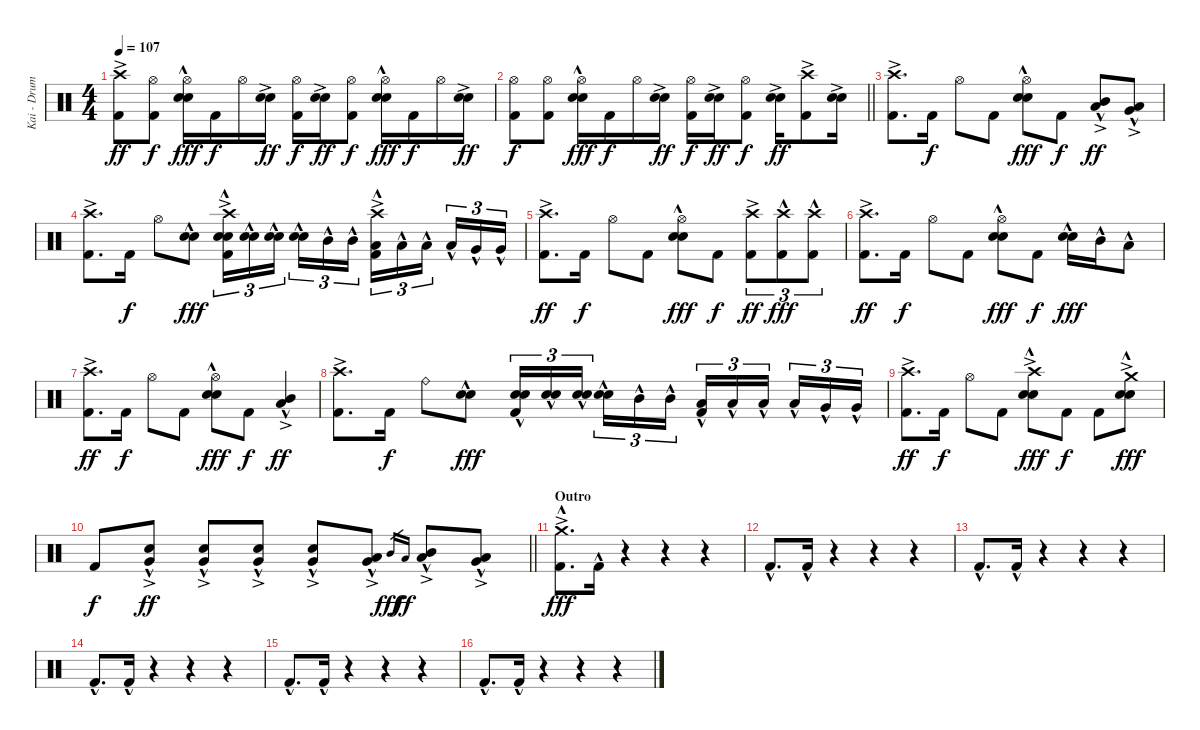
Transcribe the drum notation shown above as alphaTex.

\track ("Kai - Drums" "Kai - Drum") {instrument percussion}
\staff {score}
\articulation defaults
\ts (4 4)
\tempo 107
\clef neutral
\ks c
("Crash high (hit)"{ac} "Kick (hit) 2").8{dy ff} ("Hi-Hat (open)" "Kick (hit) 2").8{dy f} ("Hi-Hat (open)" "Electric Snare (hit)"{hac} "Snare (hit) 2"{hac}).16{dy fff} "Kick (hit) 2".16{dy f} "Hi-Hat (open)".16 ("Electric Snare (hit)"{ac} "Snare (hit) 2"{ac}).16{dy ff} ("Hi-Hat (open)" "Kick (hit) 2").16{dy f} ("Electric Snare (hit)"{ac} "Snare (hit) 2"{ac}).16{dy ff} ("Hi-Hat (open)" "Kick (hit) 2").8{dy f} ("Hi-Hat (open)" "Electric Snare (hit)"{hac} "Snare (hit) 2"{hac}).16{dy fff} "Kick (hit) 2".16{dy f} "Hi-Hat (open)".16 ("Electric Snare (hit)"{ac} "Snare (hit) 2"{ac}).16{dy ff} |
\barLineRight lightlight
("Hi-Hat (open)" "Kick (hit) 2").8{dy f} ("Hi-Hat (open)" "Kick (hit) 2").8 ("Hi-Hat (open)" "Electric Snare (hit)"{hac} "Snare (hit) 2"{hac}).16{dy fff} "Kick (hit) 2".16{dy f} "Hi-Hat (open)".16 ("Electric Snare (hit)"{ac} "Snare (hit) 2"{ac}).16{dy ff} ("Hi-Hat (open)" "Kick (hit) 2").16{dy f} ("Electric Snare (hit)"{ac} "Snare (hit) 2"{ac}).16{dy ff} ("Hi-Hat (open)" "Kick (hit) 2").8{dy f} ("Electric Snare (hit)"{ac} "Snare (hit) 2"{ac}).16{dy ff} ("Crash high (hit)"{ac} "Kick (hit) 2").8 ("Electric Snare (hit)"{ac} "Snare (hit) 2"{ac}).16 |
\section ("" "")
("Crash high (hit)"{ac} "Kick (hit) 2").8{d} "Kick (hit) 2".16{dy f} "Hi-Hat (open)".8 "Kick (hit) 2".8 ("Hi-Hat (open)" "Electric Snare (hit)"{hac} "Snare (hit) 2"{hac}).8{dy fff} "Kick (hit) 2".8{dy f} ("Mid Tom (hit)"{hac} "Low Tom (hit)"{ac}).8{dy ff} ("Low Tom (hit)"{hac} "Very Low Tom (hit)"{ac}).8 |
("Crash high (hit)"{ac} "Kick (hit) 2").8{d} "Kick (hit) 2".16{dy f} "Hi-Hat (open)".8 ("Electric Snare (hit)"{hac} "Snare (hit) 2"{hac}).8{dy fff} ("Crash high (hit)"{ac} "Electric Snare (hit)"{hac} "Snare (hit) 2"{hac} "Kick (hit) 2").16{tu (3 2)} ("Electric Snare (hit)"{hac} "Snare (hit) 2"{hac}).16{tu (3 2)} ("Electric Snare (hit)"{hac} "Snare (hit) 2"{hac}).16{tu (3 2) beam splitsecondary} ("Electric Snare (hit)"{hac} "Snare (hit) 2"{hac}).16{tu (3 2)} "Mid Tom (hit)"{hac}.16{tu (3 2)} "Mid Tom (hit)"{hac}.16{tu (3 2)} ("Crash high (hit)"{ac} "Low Tom (hit)"{hac} "Kick (hit) 2").16{tu (3 2)} "Low Tom (hit)"{hac}.16{tu (3 2)} "Low Tom (hit)"{hac}.16{tu (3 2) beam splitsecondary} "Low Tom (hit)"{hac}.16{tu (3 2)} "Very Low Tom (hit)"{hac}.16{tu (3 2)} "Very Low Tom (hit)"{hac}.16{tu (3 2)} |
("Crash high (hit)"{ac} "Kick (hit) 2").8{d dy ff} "Kick (hit) 2".16{dy f} "Hi-Hat (open)".8 "Kick (hit) 2".8 ("Hi-Hat (open)" "Electric Snare (hit)"{hac} "Snare (hit) 2"{hac}).8{dy fff} "Kick (hit) 2".8{dy f} ("Crash high (hit)"{ac} "Kick (hit) 2").8{tu (3 2) dy ff} ("Crash high (hit)"{hac} "Kick (hit) 2").8{tu (3 2) dy fff} ("Crash high (hit)"{hac} "Kick (hit) 2").8{tu (3 2)} |
("Crash high (hit)"{ac} "Kick (hit) 2").8{d dy ff} "Kick (hit) 2".16{dy f} "Hi-Hat (open)".8 "Kick (hit) 2".8 ("Hi-Hat (open)" "Electric Snare (hit)"{hac} "Snare (hit) 2"{hac}).8{dy fff} "Kick (hit) 2".8{dy f} ("Electric Snare (hit)"{hac} "Snare (hit) 2"{hac}).16{dy fff} "Mid Tom (hit)"{hac}.16 "Low Tom (hit)"{hac}.8 |
("Crash high (hit)"{ac} "Kick (hit) 2").8{d dy ff} "Kick (hit) 2".16{dy f} "Hi-Hat (open)".8 "Kick (hit) 2".8 ("Hi-Hat (open)" "Electric Snare (hit)"{hac} "Snare (hit) 2"{hac}).8{dy fff} "Kick (hit) 2".8{dy f} ("Mid Tom (hit)"{hac} "Low Tom (hit)"{ac}).4{dy ff} |
("Crash high (hit)"{ac} "Kick (hit) 2").8{d} "Kick (hit) 2".16{dy f} "Ride (bell)".8 ("Electric Snare (hit)"{hac} "Snare (hit) 2"{hac}).8{dy fff} ("Electric Snare (hit)"{hac} "Snare (hit) 2"{hac} "Kick (hit) 2").16{tu (3 2)} ("Electric Snare (hit)"{hac} "Snare (hit) 2"{hac}).16{tu (3 2)} ("Electric Snare (hit)"{hac} "Snare (hit) 2"{hac}).16{tu (3 2) beam splitsecondary} ("Electric Snare (hit)"{hac} "Snare (hit) 2"{hac}).16{tu (3 2)} "Mid Tom (hit)"{hac}.16{tu (3 2)} "Mid Tom (hit)"{hac}.16{tu (3 2)} ("Low Tom (hit)"{hac} "Kick (hit) 2").16{tu (3 2)} "Low Tom (hit)"{hac}.16{tu (3 2)} "Low Tom (hit)"{hac}.16{tu (3 2) beam splitsecondary} "Low Tom (hit)"{hac}.16{tu (3 2)} "Very Low Tom (hit)"{hac}.16{tu (3 2)} "Very Low Tom (hit)"{hac}.16{tu (3 2)} |
("Crash high (hit)"{ac} "Kick (hit) 2").8{d dy ff} "Kick (hit) 2".16{dy f} "Hi-Hat (open)".8 "Kick (hit) 2".8 ("Crash high (hit)"{ac} "Electric Snare (hit)"{hac} "Snare (hit) 2"{hac}).8{dy fff} "Kick (hit) 2".8{dy f} "Kick (hit) 2".8 ("Crash medium (hit)"{ac} "Electric Snare (hit)"{hac} "Snare (hit) 2"{hac}).8{dy fff} |
\barLineRight lightlight "Kick (hit) 2".8{dy f}
("Electric Snare (hit)"{hac} "Very Low Tom (hit)"{ac}).8{dy ff} ("Electric Snare (hit)"{hac} "Very Low Tom (hit)"{ac}).8 ("Electric Snare (hit)"{hac} "Very Low Tom (hit)"{ac}).8 ("Electric Snare (hit)"{hac} "Very Low Tom (hit)"{ac}).8 ("Low Tom (hit)"{hac} "Very Low Tom (hit)"{ac}).8 "Mid Tom (hit)".16{gr dy fff} "Low Tom (hit)".16{gr dy ff} ("Mid Tom (hit)"{hac} "Low Tom (hit)"{ac}).8 ("Very Low Tom (hit)"{hac} "Low Floor Tom (hit)"{ac}).8 |
\section ("" "Outro")
("Crash medium (hit)"{ac} "Kick (hit) 2"{hac}).8{d dy fff} "Kick (hit) 2"{hac}.16 r.4 r.4 r.4 |
"Kick (hit) 2"{hac}.8{d} "Kick (hit) 2"{hac}.16 r.4 r.4 r.4 |
"Kick (hit) 2"{hac}.8{d} "Kick (hit) 2"{hac}.16 r.4 r.4 r.4 |
"Kick (hit) 2"{hac}.8{d} "Kick (hit) 2"{hac}.16 r.4 r.4 r.4 |
"Kick (hit) 2"{hac}.8{d} "Kick (hit) 2"{hac}.16 r.4 r.4 r.4 |
"Kick (hit) 2"{hac}.8{d} "Kick (hit) 2"{hac}.16 r.4 r.4 r.4
